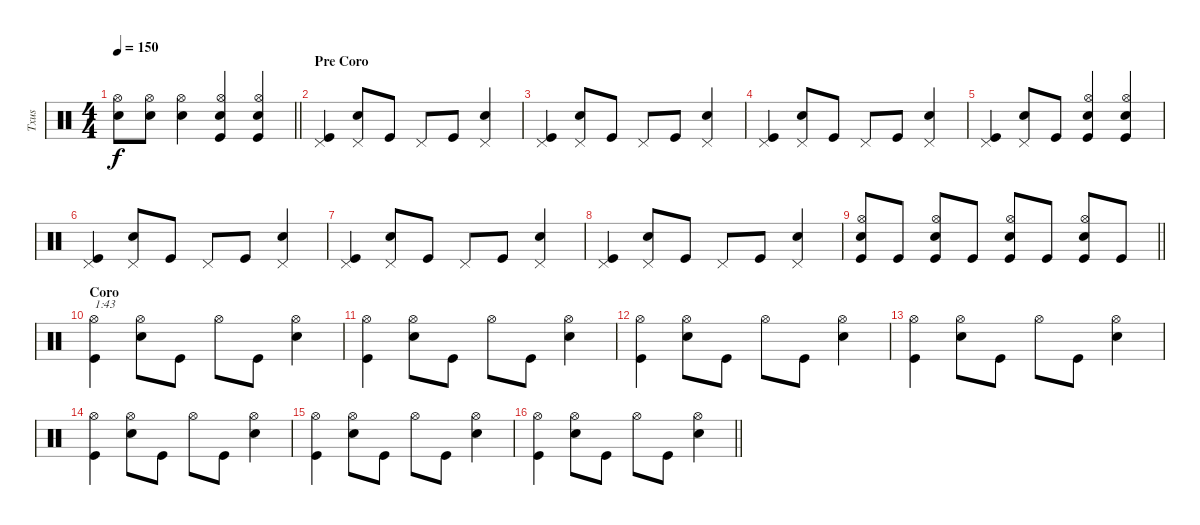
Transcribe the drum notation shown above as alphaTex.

\track ("Txus" "Txus") {instrument percussion}
\staff {score}
\articulation defaults
\ts (4 4)
\tempo 150
\clef neutral
\barLineRight lightlight
\ks c
("Snare (hit) 2" "Hi-Hat (open)").8{dy f} ("Snare (hit) 2" "Hi-Hat (open)").8 ("Snare (hit) 2" "Hi-Hat (open)").4 ("Kick (hit)" "Snare (hit) 2" "Hi-Hat (open)").4 ("Kick (hit)" "Snare (hit) 2" "Hi-Hat (open)").4 |
\section ("" "Pre Coro")
("Kick (hit)" "Pedal Hi-Hat (hit)").4 ("Snare (hit) 2" "Pedal Hi-Hat (hit)").8 "Kick (hit)".8 "Pedal Hi-Hat (hit)".8 "Kick (hit)".8 ("Snare (hit) 2" "Pedal Hi-Hat (hit)").4 |
("Kick (hit)" "Pedal Hi-Hat (hit)").4 ("Snare (hit) 2" "Pedal Hi-Hat (hit)").8 "Kick (hit)".8 "Pedal Hi-Hat (hit)".8 "Kick (hit)".8 ("Snare (hit) 2" "Pedal Hi-Hat (hit)").4 |
("Kick (hit)" "Pedal Hi-Hat (hit)").4 ("Snare (hit) 2" "Pedal Hi-Hat (hit)").8 "Kick (hit)".8 "Pedal Hi-Hat (hit)".8 "Kick (hit)".8 ("Snare (hit) 2" "Pedal Hi-Hat (hit)").4 |
("Kick (hit)" "Pedal Hi-Hat (hit)").4 ("Snare (hit) 2" "Pedal Hi-Hat (hit)").8 "Kick (hit)".8 ("Kick (hit)" "Snare (hit) 2" "Hi-Hat (open)").4 ("Kick (hit)" "Snare (hit) 2" "Hi-Hat (open)").4 |
("Kick (hit)" "Pedal Hi-Hat (hit)").4 ("Snare (hit) 2" "Pedal Hi-Hat (hit)").8 "Kick (hit)".8 "Pedal Hi-Hat (hit)".8 "Kick (hit)".8 ("Snare (hit) 2" "Pedal Hi-Hat (hit)").4 |
("Kick (hit)" "Pedal Hi-Hat (hit)").4 ("Snare (hit) 2" "Pedal Hi-Hat (hit)").8 "Kick (hit)".8 "Pedal Hi-Hat (hit)".8 "Kick (hit)".8 ("Snare (hit) 2" "Pedal Hi-Hat (hit)").4 |
("Kick (hit)" "Pedal Hi-Hat (hit)").4 ("Snare (hit) 2" "Pedal Hi-Hat (hit)").8 "Kick (hit)".8 "Pedal Hi-Hat (hit)".8 "Kick (hit)".8 ("Snare (hit) 2" "Pedal Hi-Hat (hit)").4 |
\barLineRight lightlight
("Kick (hit)" "Snare (hit) 2" "Hi-Hat (open)").8 "Kick (hit)".8 ("Kick (hit)" "Snare (hit) 2" "Hi-Hat (open)").8 "Kick (hit)".8 ("Kick (hit)" "Snare (hit) 2" "Hi-Hat (open)").8 "Kick (hit)".8 ("Kick (hit)" "Snare (hit) 2" "Hi-Hat (open)").8 "Kick (hit)".8 |
\section ("" "Coro")
("Kick (hit)" "Hi-Hat (open)").4{txt "1:43"} ("Snare (hit) 2" "Hi-Hat (open)").8 "Kick (hit)".8 "Hi-Hat (open)".8 "Kick (hit)".8 ("Snare (hit) 2" "Hi-Hat (open)").4 |
("Kick (hit)" "Hi-Hat (open)").4 ("Snare (hit) 2" "Hi-Hat (open)").8 "Kick (hit)".8 "Hi-Hat (open)".8 "Kick (hit)".8 ("Snare (hit) 2" "Hi-Hat (open)").4 |
("Kick (hit)" "Hi-Hat (open)").4 ("Snare (hit) 2" "Hi-Hat (open)").8 "Kick (hit)".8 "Hi-Hat (open)".8 "Kick (hit)".8 ("Snare (hit) 2" "Hi-Hat (open)").4 |
("Kick (hit)" "Hi-Hat (open)").4 ("Snare (hit) 2" "Hi-Hat (open)").8 "Kick (hit)".8 "Hi-Hat (open)".8 "Kick (hit)".8 ("Snare (hit) 2" "Hi-Hat (open)").4 |
("Kick (hit)" "Hi-Hat (open)").4 ("Snare (hit) 2" "Hi-Hat (open)").8 "Kick (hit)".8 "Hi-Hat (open)".8 "Kick (hit)".8 ("Snare (hit) 2" "Hi-Hat (open)").4 |
("Kick (hit)" "Hi-Hat (open)").4 ("Snare (hit) 2" "Hi-Hat (open)").8 "Kick (hit)".8 "Hi-Hat (open)".8 "Kick (hit)".8 ("Snare (hit) 2" "Hi-Hat (open)").4 |
\barLineRight lightlight
("Kick (hit)" "Hi-Hat (open)").4 ("Snare (hit) 2" "Hi-Hat (open)").8 "Kick (hit)".8 "Hi-Hat (open)".8 "Kick (hit)".8 ("Snare (hit) 2" "Hi-Hat (open)").4
